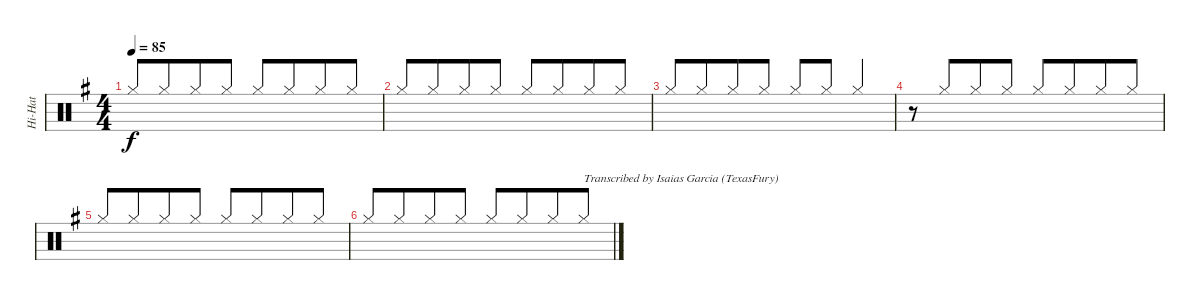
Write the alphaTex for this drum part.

\track ("Hi-Hat" "Hi-Hat") {instrument percussion}
\staff {score}
\articulation defaults
\ts (4 4)
\tempo 85
\clef neutral
\ks g "Hi-Hat (closed)".8{dy f beam Up} "Hi-Hat (closed)".8{beam Up beam merge} "Hi-Hat (closed)".8{beam Up} "Hi-Hat (closed)".8{beam Up} "Hi-Hat (closed)".8{beam Up} "Hi-Hat (closed)".8{beam Up beam merge} "Hi-Hat (closed)".8{beam Up} "Hi-Hat (closed)".8{beam Up}
|
"Hi-Hat (closed)".8{beam Up} "Hi-Hat (closed)".8{beam Up beam merge} "Hi-Hat (closed)".8{beam Up} "Hi-Hat (closed)".8{beam Up} "Hi-Hat (closed)".8{beam Up} "Hi-Hat (closed)".8{beam Up beam merge} "Hi-Hat (closed)".8{beam Up} "Hi-Hat (closed)".8{beam Up} |
"Hi-Hat (closed)".8{beam Up} "Hi-Hat (closed)".8{beam Up beam merge} "Hi-Hat (closed)".8{beam Up} "Hi-Hat (closed)".8{beam Up} "Hi-Hat (closed)".8{beam Up} "Hi-Hat (closed)".8{beam Up} "Hi-Hat (closed)".4{beam Up} |
r.8 "Hi-Hat (closed)".8{beam Up beam merge} "Hi-Hat (closed)".8{beam Up} "Hi-Hat (closed)".8{beam Up} "Hi-Hat (closed)".8{beam Up} "Hi-Hat (closed)".8{beam Up beam merge} "Hi-Hat (closed)".8{beam Up} "Hi-Hat (closed)".8{beam Up} |
"Hi-Hat (closed)".8{beam Up} "Hi-Hat (closed)".8{beam Up beam merge} "Hi-Hat (closed)".8{beam Up} "Hi-Hat (closed)".8{beam Up} "Hi-Hat (closed)".8{beam Up} "Hi-Hat (closed)".8{beam Up beam merge} "Hi-Hat (closed)".8{beam Up} "Hi-Hat (closed)".8{beam Up} |
"Hi-Hat (closed)".8{beam Up} "Hi-Hat (closed)".8{beam Up beam merge} "Hi-Hat (closed)".8{beam Up} "Hi-Hat (closed)".8{beam Up} "Hi-Hat (closed)".8{beam Up} "Hi-Hat (closed)".8{beam Up beam merge} "Hi-Hat (closed)".8{beam Up} "Hi-Hat (closed)".8{txt "Transcribed by Isaias Garcia (TexasFury)" beam Up}
